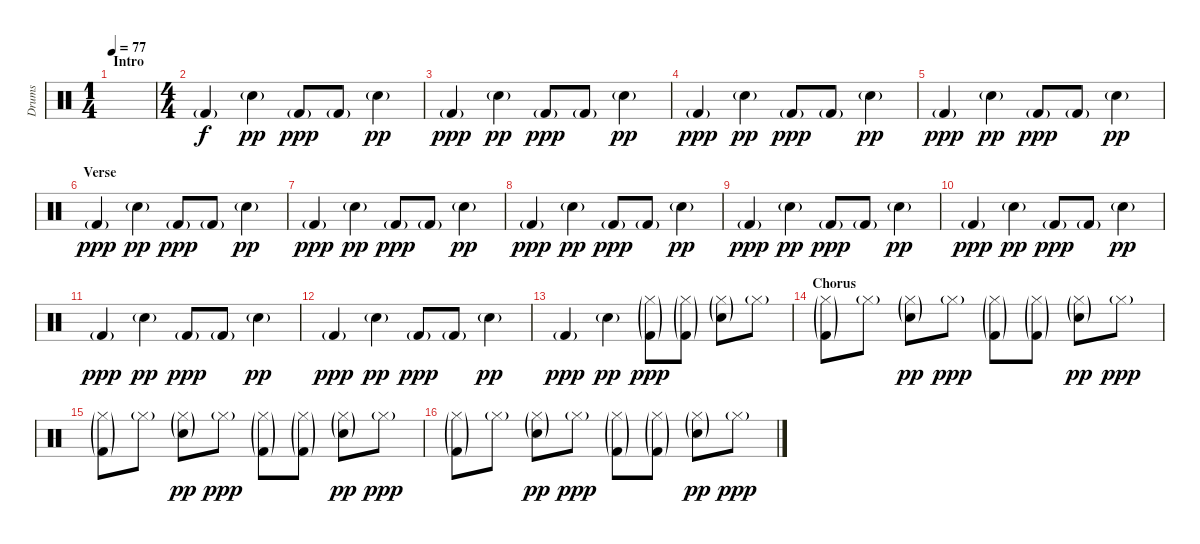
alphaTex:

\track ("Drums" "Drums") {instrument percussion}
\staff {score}
\articulation defaults
\ts (1 4)
\section ("" "Intro")
\tempo 77
\clef neutral
\ks c
|
\ts (4 4)
"Kick (hit) 2"{g}.4 "Snare (hit) 2"{g}.4{dy pp} "Kick (hit) 2"{g}.8{dy ppp} "Kick (hit) 2"{g}.8 "Snare (hit) 2"{g}.4{dy pp} |
"Kick (hit) 2"{g}.4{dy ppp} "Snare (hit) 2"{g}.4{dy pp} "Kick (hit) 2"{g}.8{dy ppp} "Kick (hit) 2"{g}.8 "Snare (hit) 2"{g}.4{dy pp} |
"Kick (hit) 2"{g}.4{dy ppp} "Snare (hit) 2"{g}.4{dy pp} "Kick (hit) 2"{g}.8{dy ppp} "Kick (hit) 2"{g}.8 "Snare (hit) 2"{g}.4{dy pp} |
"Kick (hit) 2"{g}.4{dy ppp} "Snare (hit) 2"{g}.4{dy pp} "Kick (hit) 2"{g}.8{dy ppp} "Kick (hit) 2"{g}.8 "Snare (hit) 2"{g}.4{dy pp} |
\section ("" "Verse")
"Kick (hit) 2"{g}.4{dy ppp} "Snare (hit) 2"{g}.4{dy pp} "Kick (hit) 2"{g}.8{dy ppp} "Kick (hit) 2"{g}.8 "Snare (hit) 2"{g}.4{dy pp} |
"Kick (hit) 2"{g}.4{dy ppp} "Snare (hit) 2"{g}.4{dy pp} "Kick (hit) 2"{g}.8{dy ppp} "Kick (hit) 2"{g}.8 "Snare (hit) 2"{g}.4{dy pp} |
"Kick (hit) 2"{g}.4{dy ppp} "Snare (hit) 2"{g}.4{dy pp} "Kick (hit) 2"{g}.8{dy ppp} "Kick (hit) 2"{g}.8 "Snare (hit) 2"{g}.4{dy pp} |
"Kick (hit) 2"{g}.4{dy ppp} "Snare (hit) 2"{g}.4{dy pp} "Kick (hit) 2"{g}.8{dy ppp} "Kick (hit) 2"{g}.8 "Snare (hit) 2"{g}.4{dy pp} |
"Kick (hit) 2"{g}.4{dy ppp} "Snare (hit) 2"{g}.4{dy pp} "Kick (hit) 2"{g}.8{dy ppp} "Kick (hit) 2"{g}.8 "Snare (hit) 2"{g}.4{dy pp} |
"Kick (hit) 2"{g}.4{dy ppp} "Snare (hit) 2"{g}.4{dy pp} "Kick (hit) 2"{g}.8{dy ppp} "Kick (hit) 2"{g}.8 "Snare (hit) 2"{g}.4{dy pp} |
"Kick (hit) 2"{g}.4{dy ppp} "Snare (hit) 2"{g}.4{dy pp} "Kick (hit) 2"{g}.8{dy ppp} "Kick (hit) 2"{g}.8 "Snare (hit) 2"{g}.4{dy pp} |
"Kick (hit) 2"{g}.4{dy ppp} "Snare (hit) 2"{g}.4{dy pp} ("Hi-Hat (closed)"{g} "Kick (hit) 2"{g}).8{dy ppp} ("Hi-Hat (closed)"{g} "Kick (hit) 2"{g}).8 ("Hi-Hat (closed)"{g} "Snare (hit) 2"{g}).8 "Hi-Hat (closed)"{g}.8 |
\section ("" "Chorus")
("Hi-Hat (closed)"{g} "Kick (hit) 2"{g}).8 "Hi-Hat (closed)"{g}.8 ("Hi-Hat (closed)"{g} "Snare (hit) 2"{g}).8{dy pp} "Hi-Hat (closed)"{g}.8{dy ppp} ("Hi-Hat (closed)"{g} "Kick (hit) 2"{g}).8 ("Hi-Hat (closed)"{g} "Kick (hit) 2"{g}).8 ("Hi-Hat (closed)"{g} "Snare (hit) 2"{g}).8{dy pp} "Hi-Hat (closed)"{g}.8{dy ppp} |
("Hi-Hat (closed)"{g} "Kick (hit) 2"{g}).8 "Hi-Hat (closed)"{g}.8 ("Hi-Hat (closed)"{g} "Snare (hit) 2"{g}).8{dy pp} "Hi-Hat (closed)"{g}.8{dy ppp} ("Hi-Hat (closed)"{g} "Kick (hit) 2"{g}).8 ("Hi-Hat (closed)"{g} "Kick (hit) 2"{g}).8 ("Hi-Hat (closed)"{g} "Snare (hit) 2"{g}).8{dy pp} "Hi-Hat (closed)"{g}.8{dy ppp} |
("Hi-Hat (closed)"{g} "Kick (hit) 2"{g}).8 "Hi-Hat (closed)"{g}.8 ("Hi-Hat (closed)"{g} "Snare (hit) 2"{g}).8{dy pp} "Hi-Hat (closed)"{g}.8{dy ppp} ("Hi-Hat (closed)"{g} "Kick (hit) 2"{g}).8 ("Hi-Hat (closed)"{g} "Kick (hit) 2"{g}).8 ("Hi-Hat (closed)"{g} "Snare (hit) 2"{g}).8{dy pp} "Hi-Hat (closed)"{g}.8{dy ppp}
